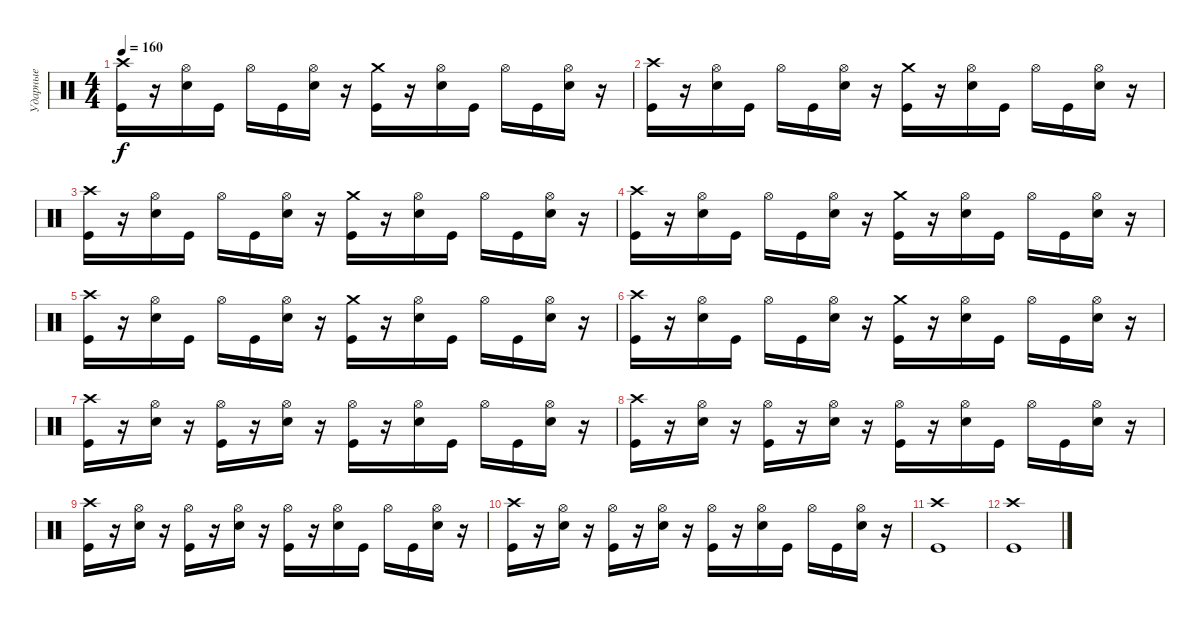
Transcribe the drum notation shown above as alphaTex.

\track ("Ударные" "Ударные") {instrument percussion}
\staff {score}
\articulation defaults
\ts (4 4)
\tempo 160
\clef neutral
\ks c
("Kick (hit)" "Crash high (hit)").16{dy f} r.16 ("Snare (hit) 2" "Hi-Hat (open)").16 "Kick (hit)".16 "Hi-Hat (open)".16 "Kick (hit)".16 ("Snare (hit) 2" "Hi-Hat (open)").16 r.16 ("Kick (hit)" "Crash medium (hit)").16 r.16 ("Snare (hit) 2" "Hi-Hat (open)").16 "Kick (hit)".16 "Hi-Hat (open)".16 "Kick (hit)".16 ("Snare (hit) 2" "Hi-Hat (open)").16 r.16 |
("Kick (hit)" "Crash high (hit)").16 r.16 ("Snare (hit) 2" "Hi-Hat (open)").16 "Kick (hit)".16 "Hi-Hat (open)".16 "Kick (hit)".16 ("Snare (hit) 2" "Hi-Hat (open)").16 r.16 ("Kick (hit)" "Crash medium (hit)").16 r.16 ("Snare (hit) 2" "Hi-Hat (open)").16 "Kick (hit)".16 "Hi-Hat (open)".16 "Kick (hit)".16 ("Snare (hit) 2" "Hi-Hat (open)").16 r.16 |
("Kick (hit)" "Crash high (hit)").16 r.16 ("Snare (hit) 2" "Hi-Hat (open)").16 "Kick (hit)".16 "Hi-Hat (open)".16 "Kick (hit)".16 ("Snare (hit) 2" "Hi-Hat (open)").16 r.16 ("Kick (hit)" "Crash medium (hit)").16 r.16 ("Snare (hit) 2" "Hi-Hat (open)").16 "Kick (hit)".16 "Hi-Hat (open)".16 "Kick (hit)".16 ("Snare (hit) 2" "Hi-Hat (open)").16 r.16 |
("Kick (hit)" "Crash high (hit)").16 r.16 ("Snare (hit) 2" "Hi-Hat (open)").16 "Kick (hit)".16 "Hi-Hat (open)".16 "Kick (hit)".16 ("Snare (hit) 2" "Hi-Hat (open)").16 r.16 ("Kick (hit)" "Crash medium (hit)").16 r.16 ("Snare (hit) 2" "Hi-Hat (open)").16 "Kick (hit)".16 "Hi-Hat (open)".16 "Kick (hit)".16 ("Snare (hit) 2" "Hi-Hat (open)").16 r.16 |
("Kick (hit)" "Crash high (hit)").16 r.16 ("Snare (hit) 2" "Hi-Hat (open)").16 "Kick (hit)".16 "Hi-Hat (open)".16 "Kick (hit)".16 ("Snare (hit) 2" "Hi-Hat (open)").16 r.16 ("Kick (hit)" "Crash medium (hit)").16 r.16 ("Snare (hit) 2" "Hi-Hat (open)").16 "Kick (hit)".16 "Hi-Hat (open)".16 "Kick (hit)".16 ("Snare (hit) 2" "Hi-Hat (open)").16 r.16 |
("Kick (hit)" "Crash high (hit)").16 r.16 ("Snare (hit) 2" "Hi-Hat (open)").16 "Kick (hit)".16 "Hi-Hat (open)".16 "Kick (hit)".16 ("Snare (hit) 2" "Hi-Hat (open)").16 r.16 ("Kick (hit)" "Crash medium (hit)").16 r.16 ("Snare (hit) 2" "Hi-Hat (open)").16 "Kick (hit)".16 "Hi-Hat (open)".16 "Kick (hit)".16 ("Snare (hit) 2" "Hi-Hat (open)").16 r.16 |
("Kick (hit)" "Crash high (hit)").16 r.16 ("Snare (hit) 2" "Hi-Hat (open)").16 r.16 ("Kick (hit)" "Hi-Hat (open)").16 r.16 ("Snare (hit) 2" "Hi-Hat (open)").16 r.16 ("Kick (hit)" "Hi-Hat (open)").16 r.16 ("Snare (hit) 2" "Hi-Hat (open)").16 "Kick (hit)".16 "Hi-Hat (open)".16 "Kick (hit)".16 ("Snare (hit) 2" "Hi-Hat (open)").16 r.16 |
("Kick (hit)" "Crash high (hit)").16 r.16 ("Snare (hit) 2" "Hi-Hat (open)").16 r.16 ("Kick (hit)" "Hi-Hat (open)").16 r.16 ("Snare (hit) 2" "Hi-Hat (open)").16 r.16 ("Kick (hit)" "Hi-Hat (open)").16 r.16 ("Snare (hit) 2" "Hi-Hat (open)").16 "Kick (hit)".16 "Hi-Hat (open)".16 "Kick (hit)".16 ("Snare (hit) 2" "Hi-Hat (open)").16 r.16 |
("Kick (hit)" "Crash high (hit)").16 r.16 ("Snare (hit) 2" "Hi-Hat (open)").16 r.16 ("Kick (hit)" "Hi-Hat (open)").16 r.16 ("Snare (hit) 2" "Hi-Hat (open)").16 r.16 ("Kick (hit)" "Hi-Hat (open)").16 r.16 ("Snare (hit) 2" "Hi-Hat (open)").16 "Kick (hit)".16 "Hi-Hat (open)".16 "Kick (hit)".16 ("Snare (hit) 2" "Hi-Hat (open)").16 r.16 |
("Kick (hit)" "Crash high (hit)").16 r.16 ("Snare (hit) 2" "Hi-Hat (open)").16 r.16 ("Kick (hit)" "Hi-Hat (open)").16 r.16 ("Snare (hit) 2" "Hi-Hat (open)").16 r.16 ("Kick (hit)" "Hi-Hat (open)").16 r.16 ("Snare (hit) 2" "Hi-Hat (open)").16 "Kick (hit)".16 "Hi-Hat (open)".16 "Kick (hit)".16 ("Snare (hit) 2" "Hi-Hat (open)").16 r.16 |
("Kick (hit)" "Crash high (hit)").1 |
("Crash high (hit)" "Kick (hit)").1
